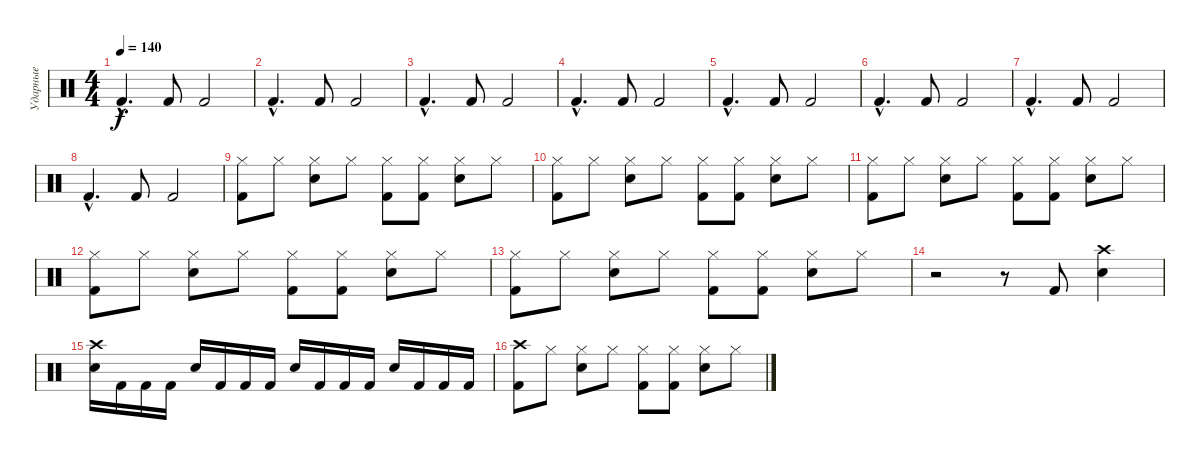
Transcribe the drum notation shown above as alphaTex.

\track ("Ударные" "Ударные") {instrument percussion}
\staff {score}
\articulation defaults
\ts (4 4)
\tempo 140
\clef neutral
\ks c "Kick (hit) 2"{hac}.4{d dy f} "Kick (hit) 2".8 "Kick (hit) 2".2
|
"Kick (hit) 2"{hac}.4{d} "Kick (hit) 2".8 "Kick (hit) 2".2 |
"Kick (hit) 2"{hac}.4{d} "Kick (hit) 2".8 "Kick (hit) 2".2 |
"Kick (hit) 2"{hac}.4{d} "Kick (hit) 2".8 "Kick (hit) 2".2 |
"Kick (hit) 2"{hac}.4{d} "Kick (hit) 2".8 "Kick (hit) 2".2 |
"Kick (hit) 2"{hac}.4{d} "Kick (hit) 2".8 "Kick (hit) 2".2 |
"Kick (hit) 2"{hac}.4{d} "Kick (hit) 2".8 "Kick (hit) 2".2 |
"Kick (hit) 2"{hac}.4{d} "Kick (hit) 2".8 "Kick (hit) 2".2 |
("Hi-Hat (closed)" "Kick (hit) 2").8 "Hi-Hat (closed)".8 ("Hi-Hat (closed)" "Snare (hit) 2").8 "Hi-Hat (closed)".8 ("Kick (hit) 2" "Hi-Hat (closed)").8 ("Kick (hit) 2" "Hi-Hat (closed)").8 ("Snare (hit) 2" "Hi-Hat (closed)").8 "Hi-Hat (closed)".8 |
("Hi-Hat (closed)" "Kick (hit) 2").8 "Hi-Hat (closed)".8 ("Hi-Hat (closed)" "Snare (hit) 2").8 "Hi-Hat (closed)".8 ("Kick (hit) 2" "Hi-Hat (closed)").8 ("Kick (hit) 2" "Hi-Hat (closed)").8 ("Snare (hit) 2" "Hi-Hat (closed)").8 "Hi-Hat (closed)".8 |
("Hi-Hat (closed)" "Kick (hit) 2").8 "Hi-Hat (closed)".8 ("Hi-Hat (closed)" "Snare (hit) 2").8 "Hi-Hat (closed)".8 ("Kick (hit) 2" "Hi-Hat (closed)").8 ("Kick (hit) 2" "Hi-Hat (closed)").8 ("Snare (hit) 2" "Hi-Hat (closed)").8 "Hi-Hat (closed)".8 |
("Hi-Hat (closed)" "Kick (hit) 2").8 "Hi-Hat (closed)".8 ("Hi-Hat (closed)" "Snare (hit) 2").8 "Hi-Hat (closed)".8 ("Kick (hit) 2" "Hi-Hat (closed)").8 ("Kick (hit) 2" "Hi-Hat (closed)").8 ("Snare (hit) 2" "Hi-Hat (closed)").8 "Hi-Hat (closed)".8 |
("Hi-Hat (closed)" "Kick (hit) 2").8 "Hi-Hat (closed)".8 ("Hi-Hat (closed)" "Snare (hit) 2").8 "Hi-Hat (closed)".8 ("Kick (hit) 2" "Hi-Hat (closed)").8 ("Kick (hit) 2" "Hi-Hat (closed)").8 ("Snare (hit) 2" "Hi-Hat (closed)").8 "Hi-Hat (closed)".8 |
r.2 r.8 "Kick (hit) 2".8 ("Crash high (hit)" "Snare (hit) 2").4 |
("Crash high (hit)" "Snare (hit) 2").16 "Kick (hit) 2".16 "Kick (hit) 2".16 "Kick (hit) 2".16 "Snare (hit) 2".16 "Kick (hit) 2".16 "Kick (hit) 2".16 "Kick (hit) 2".16 "Snare (hit) 2".16 "Kick (hit) 2".16 "Kick (hit) 2".16 "Kick (hit) 2".16 "Snare (hit) 2".16 "Kick (hit) 2".16 "Kick (hit) 2".16 "Kick (hit) 2".16 |
("Crash high (hit)" "Kick (hit) 2").8 "Hi-Hat (closed)".8 ("Hi-Hat (closed)" "Snare (hit) 2").8 "Hi-Hat (closed)".8 ("Kick (hit) 2" "Hi-Hat (closed)").8 ("Kick (hit) 2" "Hi-Hat (closed)").8 ("Snare (hit) 2" "Hi-Hat (closed)").8 "Hi-Hat (closed)".8
